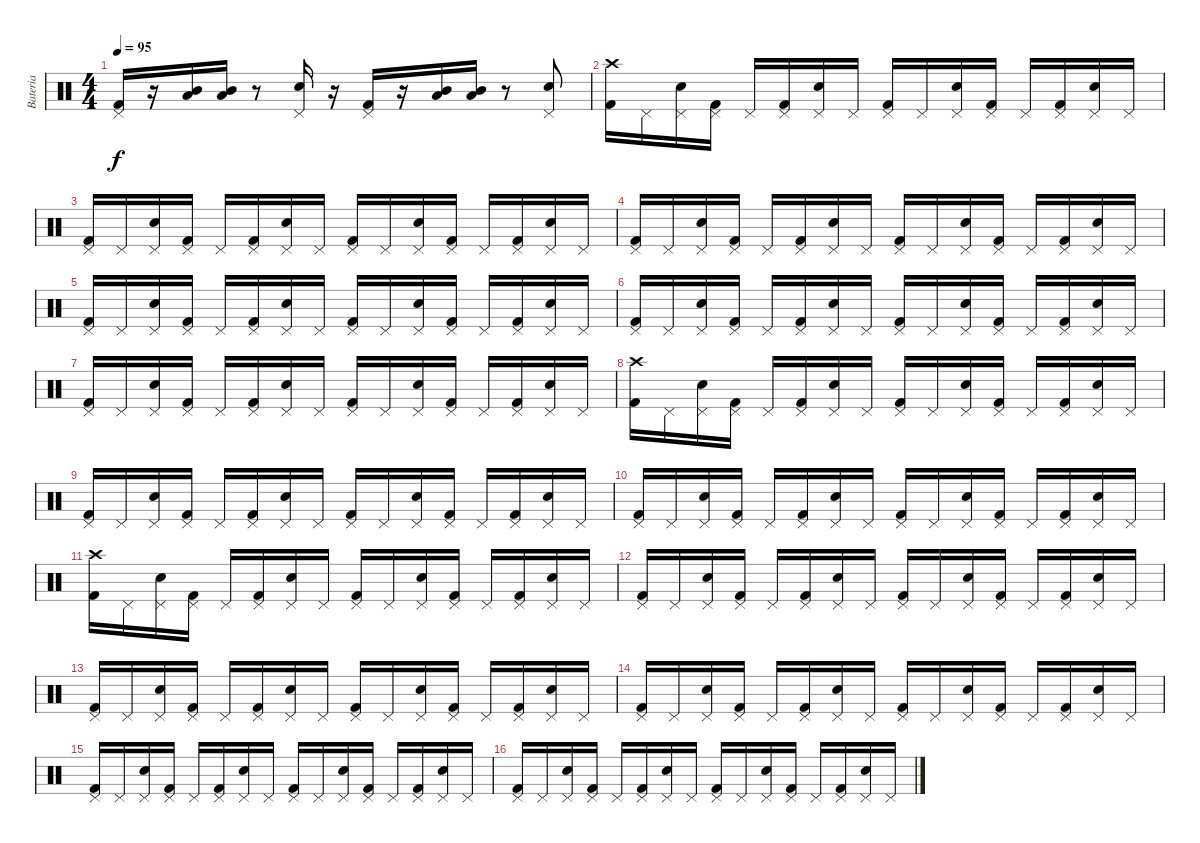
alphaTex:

\track ("Bateria" "Bateria") {instrument percussion}
\staff {score}
\articulation defaults
\ts (4 4)
\tempo 95
\clef neutral
\ks c
("Pedal Hi-Hat (hit)" "Kick (hit) 2").16{dy f} r.16 ("Mid Tom (hit)" "Low Tom (hit)").16 ("Mid Tom (hit)" "Low Tom (hit)").16 r.8 ("Pedal Hi-Hat (hit)" "Electric Snare (hit)").16 r.16 ("Pedal Hi-Hat (hit)" "Kick (hit) 2").16 r.16 ("Mid Tom (hit)" "Low Tom (hit)").16 ("Mid Tom (hit)" "Low Tom (hit)").16 r.8 ("Pedal Hi-Hat (hit)" "Electric Snare (hit)").8 |
("Crash high (hit)" "Kick (hit) 2").16 "Pedal Hi-Hat (hit)".16 ("Pedal Hi-Hat (hit)" "Electric Snare (hit)").16 ("Pedal Hi-Hat (hit)" "Kick (hit) 2").16 "Pedal Hi-Hat (hit)".16 ("Pedal Hi-Hat (hit)" "Kick (hit) 2").16 ("Pedal Hi-Hat (hit)" "Electric Snare (hit)").16 "Pedal Hi-Hat (hit)".16 ("Pedal Hi-Hat (hit)" "Kick (hit) 2").16 "Pedal Hi-Hat (hit)".16 ("Pedal Hi-Hat (hit)" "Electric Snare (hit)").16 ("Pedal Hi-Hat (hit)" "Kick (hit) 2").16 "Pedal Hi-Hat (hit)".16 ("Pedal Hi-Hat (hit)" "Kick (hit) 2").16 ("Pedal Hi-Hat (hit)" "Electric Snare (hit)").16 "Pedal Hi-Hat (hit)".16 |
("Pedal Hi-Hat (hit)" "Kick (hit) 2").16 "Pedal Hi-Hat (hit)".16 ("Pedal Hi-Hat (hit)" "Electric Snare (hit)").16 ("Pedal Hi-Hat (hit)" "Kick (hit) 2").16 "Pedal Hi-Hat (hit)".16 ("Pedal Hi-Hat (hit)" "Kick (hit) 2").16 ("Pedal Hi-Hat (hit)" "Electric Snare (hit)").16 "Pedal Hi-Hat (hit)".16 ("Pedal Hi-Hat (hit)" "Kick (hit) 2").16 "Pedal Hi-Hat (hit)".16 ("Pedal Hi-Hat (hit)" "Electric Snare (hit)").16 ("Pedal Hi-Hat (hit)" "Kick (hit) 2").16 "Pedal Hi-Hat (hit)".16 ("Pedal Hi-Hat (hit)" "Kick (hit) 2").16 ("Pedal Hi-Hat (hit)" "Electric Snare (hit)").16 "Pedal Hi-Hat (hit)".16 |
("Pedal Hi-Hat (hit)" "Kick (hit) 2").16 "Pedal Hi-Hat (hit)".16 ("Pedal Hi-Hat (hit)" "Electric Snare (hit)").16 ("Pedal Hi-Hat (hit)" "Kick (hit) 2").16 "Pedal Hi-Hat (hit)".16 ("Pedal Hi-Hat (hit)" "Kick (hit) 2").16 ("Pedal Hi-Hat (hit)" "Electric Snare (hit)").16 "Pedal Hi-Hat (hit)".16 ("Pedal Hi-Hat (hit)" "Kick (hit) 2").16 "Pedal Hi-Hat (hit)".16 ("Pedal Hi-Hat (hit)" "Electric Snare (hit)").16 ("Pedal Hi-Hat (hit)" "Kick (hit) 2").16 "Pedal Hi-Hat (hit)".16 ("Pedal Hi-Hat (hit)" "Kick (hit) 2").16 ("Pedal Hi-Hat (hit)" "Electric Snare (hit)").16 "Pedal Hi-Hat (hit)".16 |
("Pedal Hi-Hat (hit)" "Kick (hit) 2").16 "Pedal Hi-Hat (hit)".16 ("Pedal Hi-Hat (hit)" "Electric Snare (hit)").16 ("Pedal Hi-Hat (hit)" "Kick (hit) 2").16 "Pedal Hi-Hat (hit)".16 ("Pedal Hi-Hat (hit)" "Kick (hit) 2").16 ("Pedal Hi-Hat (hit)" "Electric Snare (hit)").16 "Pedal Hi-Hat (hit)".16 ("Pedal Hi-Hat (hit)" "Kick (hit) 2").16 "Pedal Hi-Hat (hit)".16 ("Pedal Hi-Hat (hit)" "Electric Snare (hit)").16 ("Pedal Hi-Hat (hit)" "Kick (hit) 2").16 "Pedal Hi-Hat (hit)".16 ("Pedal Hi-Hat (hit)" "Kick (hit) 2").16 ("Pedal Hi-Hat (hit)" "Electric Snare (hit)").16 "Pedal Hi-Hat (hit)".16 |
("Pedal Hi-Hat (hit)" "Kick (hit) 2").16 "Pedal Hi-Hat (hit)".16 ("Pedal Hi-Hat (hit)" "Electric Snare (hit)").16 ("Pedal Hi-Hat (hit)" "Kick (hit) 2").16 "Pedal Hi-Hat (hit)".16 ("Pedal Hi-Hat (hit)" "Kick (hit) 2").16 ("Pedal Hi-Hat (hit)" "Electric Snare (hit)").16 "Pedal Hi-Hat (hit)".16 ("Pedal Hi-Hat (hit)" "Kick (hit) 2").16 "Pedal Hi-Hat (hit)".16 ("Pedal Hi-Hat (hit)" "Electric Snare (hit)").16 ("Pedal Hi-Hat (hit)" "Kick (hit) 2").16 "Pedal Hi-Hat (hit)".16 ("Pedal Hi-Hat (hit)" "Kick (hit) 2").16 ("Pedal Hi-Hat (hit)" "Electric Snare (hit)").16 "Pedal Hi-Hat (hit)".16 |
("Pedal Hi-Hat (hit)" "Kick (hit) 2").16 "Pedal Hi-Hat (hit)".16 ("Pedal Hi-Hat (hit)" "Electric Snare (hit)").16 ("Pedal Hi-Hat (hit)" "Kick (hit) 2").16 "Pedal Hi-Hat (hit)".16 ("Pedal Hi-Hat (hit)" "Kick (hit) 2").16 ("Pedal Hi-Hat (hit)" "Electric Snare (hit)").16 "Pedal Hi-Hat (hit)".16 ("Pedal Hi-Hat (hit)" "Kick (hit) 2").16 "Pedal Hi-Hat (hit)".16 ("Pedal Hi-Hat (hit)" "Electric Snare (hit)").16 ("Pedal Hi-Hat (hit)" "Kick (hit) 2").16 "Pedal Hi-Hat (hit)".16 ("Pedal Hi-Hat (hit)" "Kick (hit) 2").16 ("Pedal Hi-Hat (hit)" "Electric Snare (hit)").16 "Pedal Hi-Hat (hit)".16 |
("Crash high (hit)" "Kick (hit) 2").16 "Pedal Hi-Hat (hit)".16 ("Pedal Hi-Hat (hit)" "Electric Snare (hit)").16 ("Pedal Hi-Hat (hit)" "Kick (hit) 2").16 "Pedal Hi-Hat (hit)".16 ("Pedal Hi-Hat (hit)" "Kick (hit) 2").16 ("Pedal Hi-Hat (hit)" "Electric Snare (hit)").16 "Pedal Hi-Hat (hit)".16 ("Pedal Hi-Hat (hit)" "Kick (hit) 2").16 "Pedal Hi-Hat (hit)".16 ("Pedal Hi-Hat (hit)" "Electric Snare (hit)").16 ("Pedal Hi-Hat (hit)" "Kick (hit) 2").16 "Pedal Hi-Hat (hit)".16 ("Pedal Hi-Hat (hit)" "Kick (hit) 2").16 ("Pedal Hi-Hat (hit)" "Electric Snare (hit)").16 "Pedal Hi-Hat (hit)".16 |
("Pedal Hi-Hat (hit)" "Kick (hit) 2").16 "Pedal Hi-Hat (hit)".16 ("Pedal Hi-Hat (hit)" "Electric Snare (hit)").16 ("Pedal Hi-Hat (hit)" "Kick (hit) 2").16 "Pedal Hi-Hat (hit)".16 ("Pedal Hi-Hat (hit)" "Kick (hit) 2").16 ("Pedal Hi-Hat (hit)" "Electric Snare (hit)").16 "Pedal Hi-Hat (hit)".16 ("Pedal Hi-Hat (hit)" "Kick (hit) 2").16 "Pedal Hi-Hat (hit)".16 ("Pedal Hi-Hat (hit)" "Electric Snare (hit)").16 ("Pedal Hi-Hat (hit)" "Kick (hit) 2").16 "Pedal Hi-Hat (hit)".16 ("Pedal Hi-Hat (hit)" "Kick (hit) 2").16 ("Pedal Hi-Hat (hit)" "Electric Snare (hit)").16 "Pedal Hi-Hat (hit)".16 |
("Pedal Hi-Hat (hit)" "Kick (hit) 2").16 "Pedal Hi-Hat (hit)".16 ("Pedal Hi-Hat (hit)" "Electric Snare (hit)").16 ("Pedal Hi-Hat (hit)" "Kick (hit) 2").16 "Pedal Hi-Hat (hit)".16 ("Pedal Hi-Hat (hit)" "Kick (hit) 2").16 ("Pedal Hi-Hat (hit)" "Electric Snare (hit)").16 "Pedal Hi-Hat (hit)".16 ("Pedal Hi-Hat (hit)" "Kick (hit) 2").16 "Pedal Hi-Hat (hit)".16 ("Pedal Hi-Hat (hit)" "Electric Snare (hit)").16 ("Pedal Hi-Hat (hit)" "Kick (hit) 2").16 "Pedal Hi-Hat (hit)".16 ("Pedal Hi-Hat (hit)" "Kick (hit) 2").16 ("Pedal Hi-Hat (hit)" "Electric Snare (hit)").16 "Pedal Hi-Hat (hit)".16 |
("Crash high (hit)" "Kick (hit) 2").16 "Pedal Hi-Hat (hit)".16 ("Pedal Hi-Hat (hit)" "Electric Snare (hit)").16 ("Pedal Hi-Hat (hit)" "Kick (hit) 2").16 "Pedal Hi-Hat (hit)".16 ("Pedal Hi-Hat (hit)" "Kick (hit) 2").16 ("Pedal Hi-Hat (hit)" "Electric Snare (hit)").16 "Pedal Hi-Hat (hit)".16 ("Pedal Hi-Hat (hit)" "Kick (hit) 2").16 "Pedal Hi-Hat (hit)".16 ("Pedal Hi-Hat (hit)" "Electric Snare (hit)").16 ("Pedal Hi-Hat (hit)" "Kick (hit) 2").16 "Pedal Hi-Hat (hit)".16 ("Pedal Hi-Hat (hit)" "Kick (hit) 2").16 ("Pedal Hi-Hat (hit)" "Electric Snare (hit)").16 "Pedal Hi-Hat (hit)".16 |
("Pedal Hi-Hat (hit)" "Kick (hit) 2").16 "Pedal Hi-Hat (hit)".16 ("Pedal Hi-Hat (hit)" "Electric Snare (hit)").16 ("Pedal Hi-Hat (hit)" "Kick (hit) 2").16 "Pedal Hi-Hat (hit)".16 ("Pedal Hi-Hat (hit)" "Kick (hit) 2").16 ("Pedal Hi-Hat (hit)" "Electric Snare (hit)").16 "Pedal Hi-Hat (hit)".16 ("Pedal Hi-Hat (hit)" "Kick (hit) 2").16 "Pedal Hi-Hat (hit)".16 ("Pedal Hi-Hat (hit)" "Electric Snare (hit)").16 ("Pedal Hi-Hat (hit)" "Kick (hit) 2").16 "Pedal Hi-Hat (hit)".16 ("Pedal Hi-Hat (hit)" "Kick (hit) 2").16 ("Pedal Hi-Hat (hit)" "Electric Snare (hit)").16 "Pedal Hi-Hat (hit)".16 |
("Pedal Hi-Hat (hit)" "Kick (hit) 2").16 "Pedal Hi-Hat (hit)".16 ("Pedal Hi-Hat (hit)" "Electric Snare (hit)").16 ("Pedal Hi-Hat (hit)" "Kick (hit) 2").16 "Pedal Hi-Hat (hit)".16 ("Pedal Hi-Hat (hit)" "Kick (hit) 2").16 ("Pedal Hi-Hat (hit)" "Electric Snare (hit)").16 "Pedal Hi-Hat (hit)".16 ("Pedal Hi-Hat (hit)" "Kick (hit) 2").16 "Pedal Hi-Hat (hit)".16 ("Pedal Hi-Hat (hit)" "Electric Snare (hit)").16 ("Pedal Hi-Hat (hit)" "Kick (hit) 2").16 "Pedal Hi-Hat (hit)".16 ("Pedal Hi-Hat (hit)" "Kick (hit) 2").16 ("Pedal Hi-Hat (hit)" "Electric Snare (hit)").16 "Pedal Hi-Hat (hit)".16 |
("Pedal Hi-Hat (hit)" "Kick (hit) 2").16 "Pedal Hi-Hat (hit)".16 ("Pedal Hi-Hat (hit)" "Electric Snare (hit)").16 ("Pedal Hi-Hat (hit)" "Kick (hit) 2").16 "Pedal Hi-Hat (hit)".16 ("Pedal Hi-Hat (hit)" "Kick (hit) 2").16 ("Pedal Hi-Hat (hit)" "Electric Snare (hit)").16 "Pedal Hi-Hat (hit)".16 ("Pedal Hi-Hat (hit)" "Kick (hit) 2").16 "Pedal Hi-Hat (hit)".16 ("Pedal Hi-Hat (hit)" "Electric Snare (hit)").16 ("Pedal Hi-Hat (hit)" "Kick (hit) 2").16 "Pedal Hi-Hat (hit)".16 ("Pedal Hi-Hat (hit)" "Kick (hit) 2").16 ("Pedal Hi-Hat (hit)" "Electric Snare (hit)").16 "Pedal Hi-Hat (hit)".16 |
("Pedal Hi-Hat (hit)" "Kick (hit) 2").16 "Pedal Hi-Hat (hit)".16 ("Pedal Hi-Hat (hit)" "Electric Snare (hit)").16 ("Pedal Hi-Hat (hit)" "Kick (hit) 2").16 "Pedal Hi-Hat (hit)".16 ("Pedal Hi-Hat (hit)" "Kick (hit) 2").16 ("Pedal Hi-Hat (hit)" "Electric Snare (hit)").16 "Pedal Hi-Hat (hit)".16 ("Pedal Hi-Hat (hit)" "Kick (hit) 2").16 "Pedal Hi-Hat (hit)".16 ("Pedal Hi-Hat (hit)" "Electric Snare (hit)").16 ("Pedal Hi-Hat (hit)" "Kick (hit) 2").16 "Pedal Hi-Hat (hit)".16 ("Pedal Hi-Hat (hit)" "Kick (hit) 2").16 ("Pedal Hi-Hat (hit)" "Electric Snare (hit)").16 "Pedal Hi-Hat (hit)".16 |
("Pedal Hi-Hat (hit)" "Kick (hit) 2").16 "Pedal Hi-Hat (hit)".16 ("Pedal Hi-Hat (hit)" "Electric Snare (hit)").16 ("Pedal Hi-Hat (hit)" "Kick (hit) 2").16 "Pedal Hi-Hat (hit)".16 ("Pedal Hi-Hat (hit)" "Kick (hit) 2").16 ("Pedal Hi-Hat (hit)" "Electric Snare (hit)").16 "Pedal Hi-Hat (hit)".16 ("Pedal Hi-Hat (hit)" "Kick (hit) 2").16 "Pedal Hi-Hat (hit)".16 ("Pedal Hi-Hat (hit)" "Electric Snare (hit)").16 ("Pedal Hi-Hat (hit)" "Kick (hit) 2").16 "Pedal Hi-Hat (hit)".16 ("Pedal Hi-Hat (hit)" "Kick (hit) 2").16 ("Pedal Hi-Hat (hit)" "Electric Snare (hit)").16 "Pedal Hi-Hat (hit)".16
